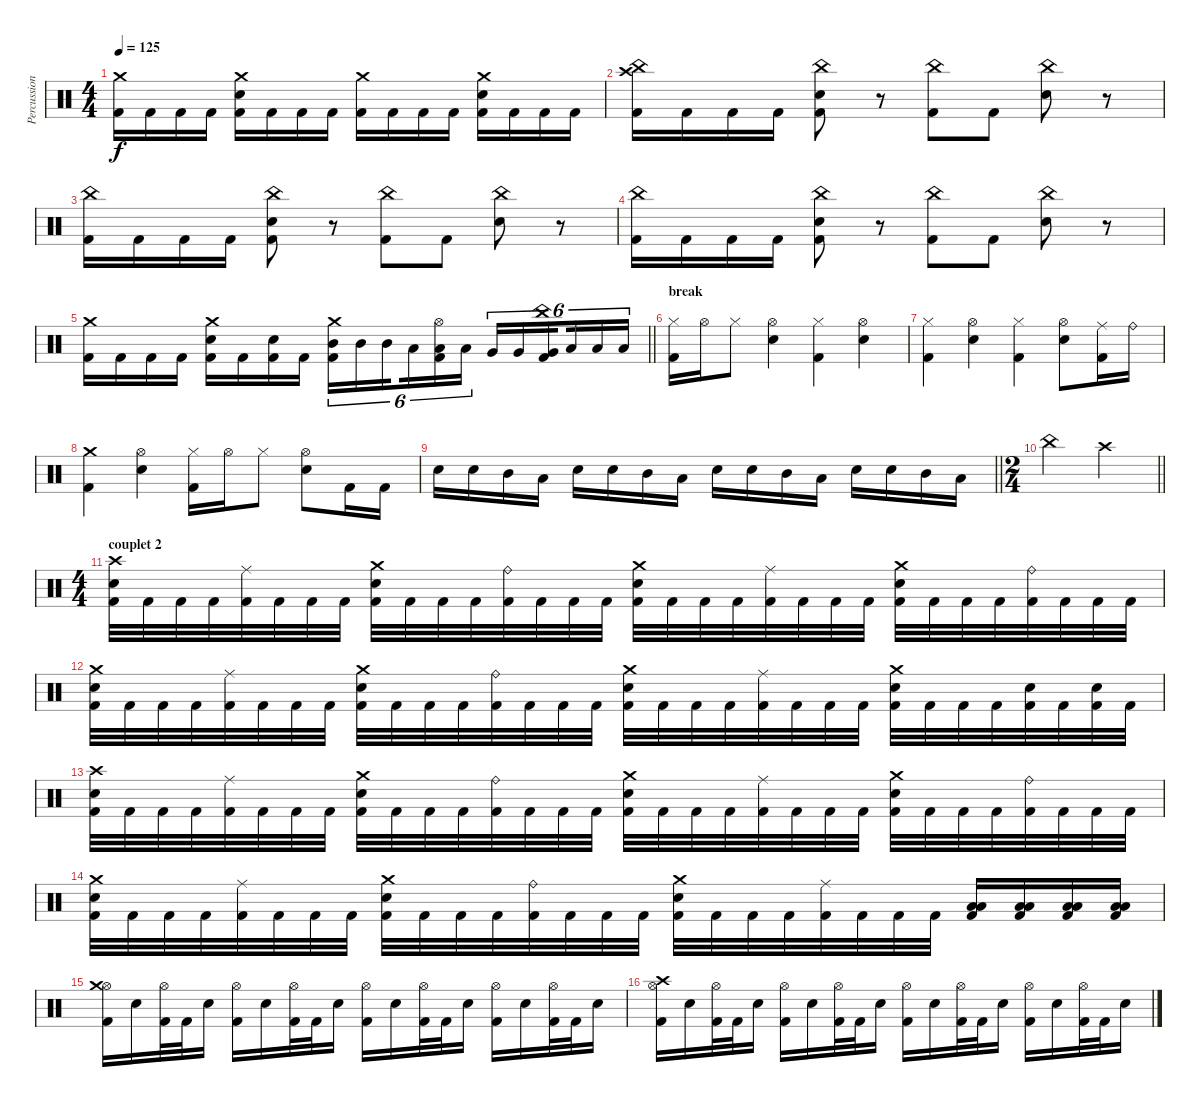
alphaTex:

\track ("Percussions" "Percussion") {instrument percussion}
\staff {score}
\articulation defaults
\ts (4 4)
\tempo 125
\clef neutral
\ks c
("Crash medium (hit)" "Kick (hit) 2").16{dy f} "Kick (hit) 2".16 "Kick (hit) 2".16 "Kick (hit) 2".16 ("Crash medium (hit)" "Electric Snare (hit)" "Kick (hit) 2").16 "Kick (hit) 2".16 "Kick (hit) 2".16 "Kick (hit) 2".16 ("Crash medium (hit)" "Kick (hit) 2").16 "Kick (hit) 2".16 "Kick (hit) 2".16 "Kick (hit) 2".16 ("Crash medium (hit)" "Electric Snare (hit)" "Kick (hit) 2").16 "Kick (hit) 2".16 "Kick (hit) 2".16 "Kick (hit) 2".16 |
("China (hit)" "Crash high (hit)" "Kick (hit) 2").16 "Kick (hit) 2".16 "Kick (hit) 2".16 "Kick (hit) 2".16 ("China (hit)" "Electric Snare (hit)" "Kick (hit) 2").8 r.8 ("China (hit)" "Kick (hit) 2").8 "Kick (hit) 2".8 ("China (hit)" "Electric Snare (hit)").8 r.8 |
("China (hit)" "Kick (hit) 2").16 "Kick (hit) 2".16 "Kick (hit) 2".16 "Kick (hit) 2".16 ("China (hit)" "Electric Snare (hit)" "Kick (hit) 2").8 r.8 ("China (hit)" "Kick (hit) 2").8 "Kick (hit) 2".8 ("China (hit)" "Electric Snare (hit)").8 r.8 |
("China (hit)" "Kick (hit) 2").16 "Kick (hit) 2".16 "Kick (hit) 2".16 "Kick (hit) 2".16 ("China (hit)" "Electric Snare (hit)" "Kick (hit) 2").8 r.8 ("China (hit)" "Kick (hit) 2").8 "Kick (hit) 2".8 ("China (hit)" "Electric Snare (hit)").8 r.8 |
\barLineRight lightlight
("Crash medium (hit)" "Kick (hit) 2").16 "Kick (hit) 2".16 "Kick (hit) 2".16 "Kick (hit) 2".16 ("Crash medium (hit)" "Electric Snare (hit)" "Kick (hit) 2").16 "Kick (hit) 2".16 ("Electric Snare (hit)" "Kick (hit) 2").16 "Kick (hit) 2".16 ("Crash medium (hit)" "Mid Tom (hit)" "Kick (hit) 2").16{tu (6 4)} "Mid Tom (hit)".16{tu (6 4)} "Mid Tom (hit)".16{tu (6 4) beam splitsecondary} "Low Tom (hit)".16{tu (6 4)} ("Hi-Hat (open)" "Low Tom (hit)" "Kick (hit) 2").16{tu (6 4)} "Low Tom (hit)".16{tu (6 4)} "Very Low Tom (hit)".16{tu (6 4)} "Very Low Tom (hit)".16{tu (6 4)} ("China (hit)" "Very Low Tom (hit)" "Kick (hit) 2").16{tu (6 4) beam splitsecondary} "Low Floor Tom (hit)".16{tu (6 4)} "Low Floor Tom (hit)".16{tu (6 4)} "Low Floor Tom (hit)".16{tu (6 4)} |
\section ("" "break")
("Hi-Hat (closed)" "Kick (hit) 2").16 "Hi-Hat (open)".16 "Hi-Hat (closed)".8 ("Hi-Hat (open)" "Electric Snare (hit)").4 ("Hi-Hat (closed)" "Kick (hit) 2").4 ("Hi-Hat (open)" "Electric Snare (hit)").4 |
("Hi-Hat (closed)" "Kick (hit) 2").4 ("Hi-Hat (open)" "Electric Snare (hit)").4 ("Hi-Hat (closed)" "Kick (hit) 2").4 ("Hi-Hat (open)" "Electric Snare (hit)").8 ("Ride (middle)" "Kick (hit) 2").16 "Ride (bell)".16 |
("Crash medium (hit)" "Kick (hit) 2").4 ("Hi-Hat (open)" "Electric Snare (hit)").4 ("Hi-Hat (closed)" "Kick (hit) 2").16 "Hi-Hat (open)".16 "Hi-Hat (closed)".8 ("Hi-Hat (open)" "Electric Snare (hit)").8 "Kick (hit) 2".16 "Kick (hit) 2".16 |
\barLineRight lightlight "Electric Snare (hit)".16 "Electric Snare (hit)".16 "Mid Tom (hit)".16 "Low Tom (hit)".16 "Electric Snare (hit)".16 "Electric Snare (hit)".16 "Mid Tom (hit)".16 "Low Tom (hit)".16 "Electric Snare (hit)".16 "Electric Snare (hit)".16 "Mid Tom (hit)".16 "Low Tom (hit)".16 "Electric Snare (hit)".16 "Electric Snare (hit)".16 "Mid Tom (hit)".16 "Low Tom (hit)".16
|
\ts (2 4)
\barLineRight lightlight "China (hit)".4 "Crash high (hit)".4
|
\ts (4 4)
\section ("" "couplet 2")
("Crash high (hit)" "Electric Snare (hit)" "Kick (hit) 2").32 "Kick (hit) 2".32 "Kick (hit) 2".32 "Kick (hit) 2".32 ("Ride (middle)" "Kick (hit) 2").32 "Kick (hit) 2".32 "Kick (hit) 2".32 "Kick (hit) 2".32 ("Crash medium (hit)" "Electric Snare (hit)" "Kick (hit) 2").32 "Kick (hit) 2".32 "Kick (hit) 2".32 "Kick (hit) 2".32 ("Ride (bell)" "Kick (hit) 2").32 "Kick (hit) 2".32 "Kick (hit) 2".32 "Kick (hit) 2".32 ("Crash medium (hit)" "Electric Snare (hit)" "Kick (hit) 2").32 "Kick (hit) 2".32 "Kick (hit) 2".32 "Kick (hit) 2".32 ("Ride (middle)" "Kick (hit) 2").32 "Kick (hit) 2".32 "Kick (hit) 2".32 "Kick (hit) 2".32 ("Crash medium (hit)" "Electric Snare (hit)" "Kick (hit) 2").32 "Kick (hit) 2".32 "Kick (hit) 2".32 "Kick (hit) 2".32 ("Ride (bell)" "Kick (hit) 2").32 "Kick (hit) 2".32 "Kick (hit) 2".32 "Kick (hit) 2".32 |
("Crash medium (hit)" "Electric Snare (hit)" "Kick (hit) 2").32 "Kick (hit) 2".32 "Kick (hit) 2".32 "Kick (hit) 2".32 ("Ride (middle)" "Kick (hit) 2").32 "Kick (hit) 2".32 "Kick (hit) 2".32 "Kick (hit) 2".32 ("Crash medium (hit)" "Electric Snare (hit)" "Kick (hit) 2").32 "Kick (hit) 2".32 "Kick (hit) 2".32 "Kick (hit) 2".32 ("Ride (bell)" "Kick (hit) 2").32 "Kick (hit) 2".32 "Kick (hit) 2".32 "Kick (hit) 2".32 ("Crash medium (hit)" "Electric Snare (hit)" "Kick (hit) 2").32 "Kick (hit) 2".32 "Kick (hit) 2".32 "Kick (hit) 2".32 ("Ride (middle)" "Kick (hit) 2").32 "Kick (hit) 2".32 "Kick (hit) 2".32 "Kick (hit) 2".32 ("Crash medium (hit)" "Electric Snare (hit)" "Kick (hit) 2").32 "Kick (hit) 2".32 "Kick (hit) 2".32 "Kick (hit) 2".32 ("Electric Snare (hit)" "Kick (hit) 2").32 "Kick (hit) 2".32 ("Electric Snare (hit)" "Kick (hit) 2").32 "Kick (hit) 2".32 |
("Crash high (hit)" "Electric Snare (hit)" "Kick (hit) 2").32 "Kick (hit) 2".32 "Kick (hit) 2".32 "Kick (hit) 2".32 ("Ride (middle)" "Kick (hit) 2").32 "Kick (hit) 2".32 "Kick (hit) 2".32 "Kick (hit) 2".32 ("Crash medium (hit)" "Electric Snare (hit)" "Kick (hit) 2").32 "Kick (hit) 2".32 "Kick (hit) 2".32 "Kick (hit) 2".32 ("Ride (bell)" "Kick (hit) 2").32 "Kick (hit) 2".32 "Kick (hit) 2".32 "Kick (hit) 2".32 ("Crash medium (hit)" "Electric Snare (hit)" "Kick (hit) 2").32 "Kick (hit) 2".32 "Kick (hit) 2".32 "Kick (hit) 2".32 ("Ride (middle)" "Kick (hit) 2").32 "Kick (hit) 2".32 "Kick (hit) 2".32 "Kick (hit) 2".32 ("Crash medium (hit)" "Electric Snare (hit)" "Kick (hit) 2").32 "Kick (hit) 2".32 "Kick (hit) 2".32 "Kick (hit) 2".32 ("Ride (bell)" "Kick (hit) 2").32 "Kick (hit) 2".32 "Kick (hit) 2".32 "Kick (hit) 2".32 |
("Crash medium (hit)" "Electric Snare (hit)" "Kick (hit) 2").32 "Kick (hit) 2".32 "Kick (hit) 2".32 "Kick (hit) 2".32 ("Ride (middle)" "Kick (hit) 2").32 "Kick (hit) 2".32 "Kick (hit) 2".32 "Kick (hit) 2".32 ("Crash medium (hit)" "Electric Snare (hit)" "Kick (hit) 2").32 "Kick (hit) 2".32 "Kick (hit) 2".32 "Kick (hit) 2".32 ("Ride (bell)" "Kick (hit) 2").32 "Kick (hit) 2".32 "Kick (hit) 2".32 "Kick (hit) 2".32 ("Crash medium (hit)" "Electric Snare (hit)" "Kick (hit) 2").32 "Kick (hit) 2".32 "Kick (hit) 2".32 "Kick (hit) 2".32 ("Ride (middle)" "Kick (hit) 2").32 "Kick (hit) 2".32 "Kick (hit) 2".32 "Kick (hit) 2".32 ("Low Tom (hit)" "Low Floor Tom (hit)" "Kick (hit) 2").16 ("Low Tom (hit)" "Low Floor Tom (hit)" "Kick (hit) 2").16 ("Low Tom (hit)" "Low Floor Tom (hit)" "Kick (hit) 2").16 ("Low Tom (hit)" "Low Floor Tom (hit)" "Kick (hit) 2").16 |
("Hi-Hat (open)" "Crash medium (hit)" "Kick (hit) 2").16 "Electric Snare (hit)".16 ("Hi-Hat (open)" "Kick (hit) 2").32 "Kick (hit) 2".32 "Electric Snare (hit)".16 ("Hi-Hat (open)" "Kick (hit) 2").16 "Electric Snare (hit)".16 ("Hi-Hat (open)" "Kick (hit) 2").32 "Kick (hit) 2".32 "Electric Snare (hit)".16 ("Hi-Hat (open)" "Kick (hit) 2").16 "Electric Snare (hit)".16 ("Hi-Hat (open)" "Kick (hit) 2").32 "Kick (hit) 2".32 "Electric Snare (hit)".16 ("Hi-Hat (open)" "Kick (hit) 2").16 "Electric Snare (hit)".16 ("Hi-Hat (open)" "Kick (hit) 2").32 "Kick (hit) 2".32 "Electric Snare (hit)".16 |
("Hi-Hat (open)" "Crash high (hit)" "Kick (hit) 2").16 "Electric Snare (hit)".16 ("Hi-Hat (open)" "Kick (hit) 2").32 "Kick (hit) 2".32 "Electric Snare (hit)".16 ("Hi-Hat (open)" "Kick (hit) 2").16 "Electric Snare (hit)".16 ("Hi-Hat (open)" "Kick (hit) 2").32 "Kick (hit) 2".32 "Electric Snare (hit)".16 ("Hi-Hat (open)" "Kick (hit) 2").16 "Electric Snare (hit)".16 ("Hi-Hat (open)" "Kick (hit) 2").32 "Kick (hit) 2".32 "Electric Snare (hit)".16 ("Hi-Hat (open)" "Kick (hit) 2").16 "Electric Snare (hit)".16 ("Hi-Hat (open)" "Kick (hit) 2").32 "Kick (hit) 2".32 "Electric Snare (hit)".16
